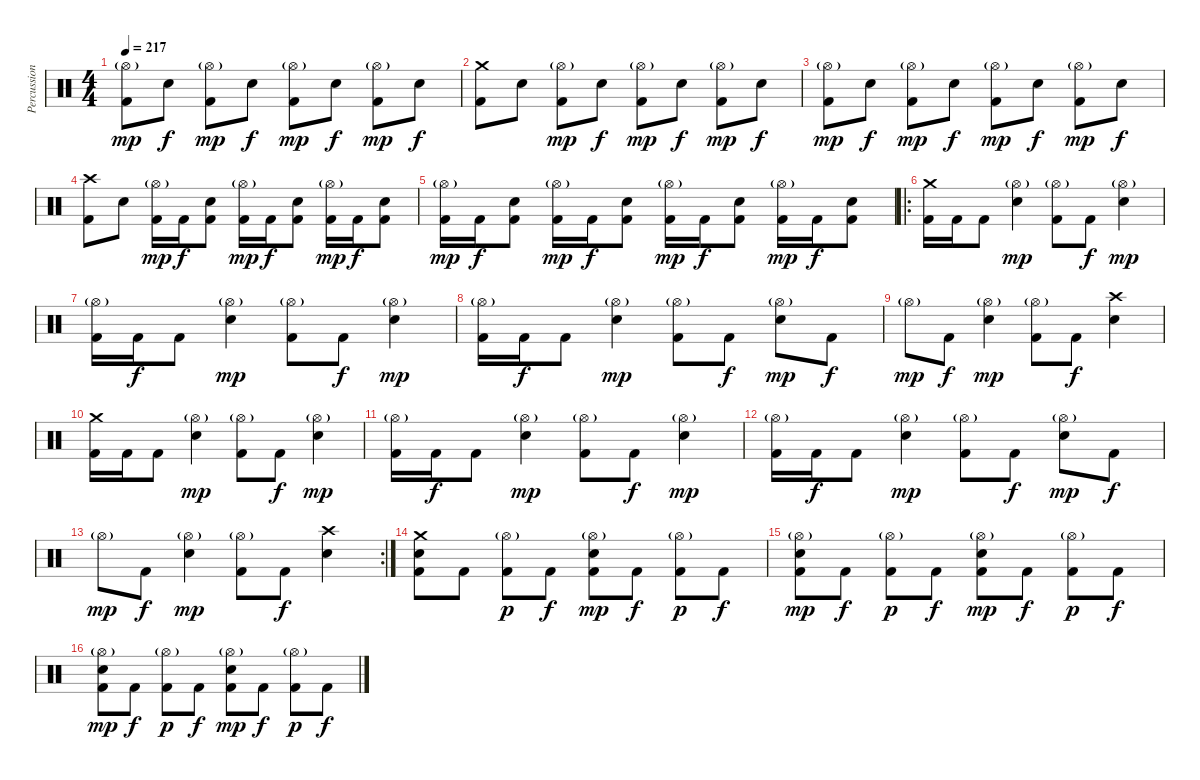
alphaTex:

\track ("Percussion" "Percussion") {instrument percussion}
\staff {score}
\articulation defaults
\ts (4 4)
\tempo 217
\clef neutral
\ks c
("Hi-Hat (open)"{g} "Kick (hit) 2").8{dy mp} "Electric Snare (hit)".8{dy f} ("Hi-Hat (open)"{g} "Kick (hit) 2").8{dy mp} "Electric Snare (hit)".8{dy f} ("Hi-Hat (open)"{g} "Kick (hit) 2").8{dy mp} "Electric Snare (hit)".8{dy f} ("Hi-Hat (open)"{g} "Kick (hit) 2").8{dy mp} "Electric Snare (hit)".8{dy f} |
("Crash medium (hit)" "Kick (hit) 2").8 "Electric Snare (hit)".8 ("Hi-Hat (open)"{g} "Kick (hit) 2").8{dy mp} "Electric Snare (hit)".8{dy f} ("Hi-Hat (open)"{g} "Kick (hit) 2").8{dy mp} "Electric Snare (hit)".8{dy f} ("Hi-Hat (open)"{g} "Kick (hit) 2").8{dy mp} "Electric Snare (hit)".8{dy f} |
("Hi-Hat (open)"{g} "Kick (hit) 2").8{dy mp} "Electric Snare (hit)".8{dy f} ("Hi-Hat (open)"{g} "Kick (hit) 2").8{dy mp} "Electric Snare (hit)".8{dy f} ("Hi-Hat (open)"{g} "Kick (hit) 2").8{dy mp} "Electric Snare (hit)".8{dy f} ("Hi-Hat (open)"{g} "Kick (hit) 2").8{dy mp} "Electric Snare (hit)".8{dy f} |
("Crash high (hit)" "Kick (hit) 2").8 "Electric Snare (hit)".8 ("Hi-Hat (open)"{g} "Kick (hit) 2").16{dy mp} "Kick (hit) 2".16{dy f} ("Electric Snare (hit)" "Kick (hit) 2").8 ("Hi-Hat (open)"{g} "Kick (hit) 2").16{dy mp} "Kick (hit) 2".16{dy f} ("Electric Snare (hit)" "Kick (hit) 2").8 ("Hi-Hat (open)"{g} "Kick (hit) 2").16{dy mp} "Kick (hit) 2".16{dy f} ("Electric Snare (hit)" "Kick (hit) 2").8 |
("Hi-Hat (open)"{g} "Kick (hit) 2").16{dy mp} "Kick (hit) 2".16{dy f} ("Electric Snare (hit)" "Kick (hit) 2").8 ("Hi-Hat (open)"{g} "Kick (hit) 2").16{dy mp} "Kick (hit) 2".16{dy f} ("Electric Snare (hit)" "Kick (hit) 2").8 ("Hi-Hat (open)"{g} "Kick (hit) 2").16{dy mp} "Kick (hit) 2".16{dy f} ("Electric Snare (hit)" "Kick (hit) 2").8 ("Hi-Hat (open)"{g} "Kick (hit) 2").16{dy mp} "Kick (hit) 2".16{dy f} ("Electric Snare (hit)" "Kick (hit) 2").8 |
\ro
("Crash medium (hit)" "Kick (hit) 2").16 "Kick (hit) 2".16 "Kick (hit) 2".8 ("Hi-Hat (open)"{g} "Electric Snare (hit)").4{dy mp} ("Hi-Hat (open)"{g} "Kick (hit) 2").8 "Kick (hit) 2".8{dy f} ("Hi-Hat (open)"{g} "Electric Snare (hit)").4{dy mp} |
("Hi-Hat (open)"{g} "Kick (hit) 2").16 "Kick (hit) 2".16{dy f} "Kick (hit) 2".8 ("Hi-Hat (open)"{g} "Electric Snare (hit)").4{dy mp} ("Hi-Hat (open)"{g} "Kick (hit) 2").8 "Kick (hit) 2".8{dy f} ("Hi-Hat (open)"{g} "Electric Snare (hit)").4{dy mp} |
("Hi-Hat (open)"{g} "Kick (hit) 2").16 "Kick (hit) 2".16{dy f} "Kick (hit) 2".8 ("Hi-Hat (open)"{g} "Electric Snare (hit)").4{dy mp} ("Hi-Hat (open)"{g} "Kick (hit) 2").8 "Kick (hit) 2".8{dy f} ("Hi-Hat (open)"{g} "Electric Snare (hit)").8{dy mp} "Kick (hit) 2".8{dy f} |
"Hi-Hat (open)"{g}.8{dy mp} "Kick (hit) 2".8{dy f} ("Hi-Hat (open)"{g} "Electric Snare (hit)").4{dy mp} ("Hi-Hat (open)"{g} "Kick (hit) 2").8 "Kick (hit) 2".8{dy f} ("Crash high (hit)" "Electric Snare (hit)").4 |
("Crash medium (hit)" "Kick (hit) 2").16 "Kick (hit) 2".16 "Kick (hit) 2".8 ("Hi-Hat (open)"{g} "Electric Snare (hit)").4{dy mp} ("Hi-Hat (open)"{g} "Kick (hit) 2").8 "Kick (hit) 2".8{dy f} ("Hi-Hat (open)"{g} "Electric Snare (hit)").4{dy mp} |
("Hi-Hat (open)"{g} "Kick (hit) 2").16 "Kick (hit) 2".16{dy f} "Kick (hit) 2".8 ("Hi-Hat (open)"{g} "Electric Snare (hit)").4{dy mp} ("Hi-Hat (open)"{g} "Kick (hit) 2").8 "Kick (hit) 2".8{dy f} ("Hi-Hat (open)"{g} "Electric Snare (hit)").4{dy mp} |
("Hi-Hat (open)"{g} "Kick (hit) 2").16 "Kick (hit) 2".16{dy f} "Kick (hit) 2".8 ("Hi-Hat (open)"{g} "Electric Snare (hit)").4{dy mp} ("Hi-Hat (open)"{g} "Kick (hit) 2").8 "Kick (hit) 2".8{dy f} ("Hi-Hat (open)"{g} "Electric Snare (hit)").8{dy mp} "Kick (hit) 2".8{dy f} |
\rc 2 "Hi-Hat (open)"{g}.8{dy mp} "Kick (hit) 2".8{dy f}
("Hi-Hat (open)"{g} "Electric Snare (hit)").4{dy mp} ("Hi-Hat (open)"{g} "Kick (hit) 2").8 "Kick (hit) 2".8{dy f} ("Crash high (hit)" "Electric Snare (hit)").4 |
("Crash medium (hit)" "Electric Snare (hit)" "Kick (hit) 2").8 "Kick (hit) 2".8 ("Hi-Hat (open)"{g} "Kick (hit) 2").8{dy p} "Kick (hit) 2".8{dy f} ("Hi-Hat (open)"{g} "Electric Snare (hit)" "Kick (hit) 2").8{dy mp} "Kick (hit) 2".8{dy f} ("Hi-Hat (open)"{g} "Kick (hit) 2").8{dy p} "Kick (hit) 2".8{dy f} |
("Hi-Hat (open)"{g} "Electric Snare (hit)" "Kick (hit) 2").8{dy mp} "Kick (hit) 2".8{dy f} ("Hi-Hat (open)"{g} "Kick (hit) 2").8{dy p} "Kick (hit) 2".8{dy f} ("Hi-Hat (open)"{g} "Electric Snare (hit)" "Kick (hit) 2").8{dy mp} "Kick (hit) 2".8{dy f} ("Hi-Hat (open)"{g} "Kick (hit) 2").8{dy p} "Kick (hit) 2".8{dy f} |
("Hi-Hat (open)"{g} "Electric Snare (hit)" "Kick (hit) 2").8{dy mp} "Kick (hit) 2".8{dy f} ("Hi-Hat (open)"{g} "Kick (hit) 2").8{dy p} "Kick (hit) 2".8{dy f} ("Hi-Hat (open)"{g} "Electric Snare (hit)" "Kick (hit) 2").8{dy mp} "Kick (hit) 2".8{dy f} ("Hi-Hat (open)"{g} "Kick (hit) 2").8{dy p} "Kick (hit) 2".8{dy f}
